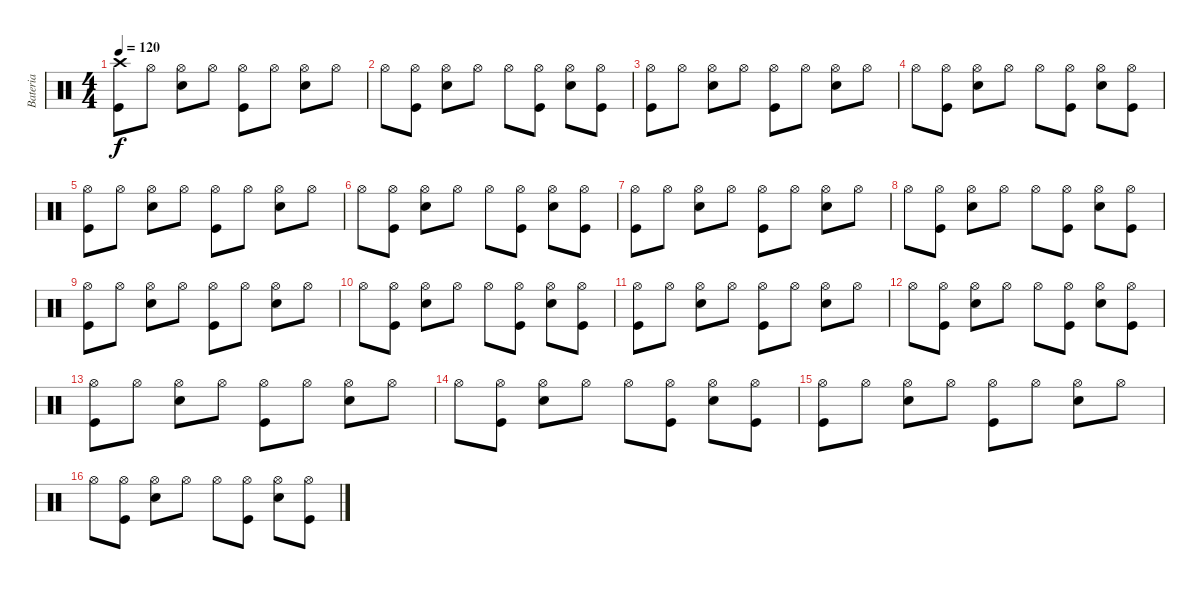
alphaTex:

\track ("Bateria" "Bateria") {instrument percussion}
\staff {score}
\articulation defaults
\ts (4 4)
\tempo 120
\clef neutral
\ks c
("Kick (hit)" "Crash high (hit)").8{dy f} "Hi-Hat (open)".8 ("Electric Snare (hit)" "Hi-Hat (open)").8 "Hi-Hat (open)".8 ("Kick (hit)" "Hi-Hat (open)").8 "Hi-Hat (open)".8 ("Electric Snare (hit)" "Hi-Hat (open)").8 "Hi-Hat (open)".8 |
"Hi-Hat (open)".8 ("Kick (hit)" "Hi-Hat (open)").8 ("Electric Snare (hit)" "Hi-Hat (open)").8 "Hi-Hat (open)".8 "Hi-Hat (open)".8 ("Kick (hit)" "Hi-Hat (open)").8 ("Electric Snare (hit)" "Hi-Hat (open)").8 ("Kick (hit)" "Hi-Hat (open)").8 |
("Kick (hit)" "Hi-Hat (open)").8 "Hi-Hat (open)".8 ("Electric Snare (hit)" "Hi-Hat (open)").8 "Hi-Hat (open)".8 ("Kick (hit)" "Hi-Hat (open)").8 "Hi-Hat (open)".8 ("Electric Snare (hit)" "Hi-Hat (open)").8 "Hi-Hat (open)".8 |
"Hi-Hat (open)".8 ("Kick (hit)" "Hi-Hat (open)").8 ("Electric Snare (hit)" "Hi-Hat (open)").8 "Hi-Hat (open)".8 "Hi-Hat (open)".8 ("Kick (hit)" "Hi-Hat (open)").8 ("Electric Snare (hit)" "Hi-Hat (open)").8 ("Kick (hit)" "Hi-Hat (open)").8 |
("Kick (hit)" "Hi-Hat (open)").8 "Hi-Hat (open)".8 ("Electric Snare (hit)" "Hi-Hat (open)").8 "Hi-Hat (open)".8 ("Kick (hit)" "Hi-Hat (open)").8 "Hi-Hat (open)".8 ("Electric Snare (hit)" "Hi-Hat (open)").8 "Hi-Hat (open)".8 |
"Hi-Hat (open)".8 ("Kick (hit)" "Hi-Hat (open)").8 ("Electric Snare (hit)" "Hi-Hat (open)").8 "Hi-Hat (open)".8 "Hi-Hat (open)".8 ("Kick (hit)" "Hi-Hat (open)").8 ("Electric Snare (hit)" "Hi-Hat (open)").8 ("Kick (hit)" "Hi-Hat (open)").8 |
("Kick (hit)" "Hi-Hat (open)").8 "Hi-Hat (open)".8 ("Electric Snare (hit)" "Hi-Hat (open)").8 "Hi-Hat (open)".8 ("Kick (hit)" "Hi-Hat (open)").8 "Hi-Hat (open)".8 ("Electric Snare (hit)" "Hi-Hat (open)").8 "Hi-Hat (open)".8 |
"Hi-Hat (open)".8 ("Kick (hit)" "Hi-Hat (open)").8 ("Electric Snare (hit)" "Hi-Hat (open)").8 "Hi-Hat (open)".8 "Hi-Hat (open)".8 ("Kick (hit)" "Hi-Hat (open)").8 ("Electric Snare (hit)" "Hi-Hat (open)").8 ("Kick (hit)" "Hi-Hat (open)").8 |
("Kick (hit)" "Hi-Hat (open)").8 "Hi-Hat (open)".8 ("Electric Snare (hit)" "Hi-Hat (open)").8 "Hi-Hat (open)".8 ("Kick (hit)" "Hi-Hat (open)").8 "Hi-Hat (open)".8 ("Electric Snare (hit)" "Hi-Hat (open)").8 "Hi-Hat (open)".8 |
"Hi-Hat (open)".8 ("Kick (hit)" "Hi-Hat (open)").8 ("Electric Snare (hit)" "Hi-Hat (open)").8 "Hi-Hat (open)".8 "Hi-Hat (open)".8 ("Kick (hit)" "Hi-Hat (open)").8 ("Electric Snare (hit)" "Hi-Hat (open)").8 ("Kick (hit)" "Hi-Hat (open)").8 |
("Kick (hit)" "Hi-Hat (open)").8 "Hi-Hat (open)".8 ("Electric Snare (hit)" "Hi-Hat (open)").8 "Hi-Hat (open)".8 ("Kick (hit)" "Hi-Hat (open)").8 "Hi-Hat (open)".8 ("Electric Snare (hit)" "Hi-Hat (open)").8 "Hi-Hat (open)".8 |
"Hi-Hat (open)".8 ("Kick (hit)" "Hi-Hat (open)").8 ("Electric Snare (hit)" "Hi-Hat (open)").8 "Hi-Hat (open)".8 "Hi-Hat (open)".8 ("Kick (hit)" "Hi-Hat (open)").8 ("Electric Snare (hit)" "Hi-Hat (open)").8 ("Kick (hit)" "Hi-Hat (open)").8 |
("Kick (hit)" "Hi-Hat (open)").8 "Hi-Hat (open)".8 ("Electric Snare (hit)" "Hi-Hat (open)").8 "Hi-Hat (open)".8 ("Kick (hit)" "Hi-Hat (open)").8 "Hi-Hat (open)".8 ("Electric Snare (hit)" "Hi-Hat (open)").8 "Hi-Hat (open)".8 |
"Hi-Hat (open)".8 ("Kick (hit)" "Hi-Hat (open)").8 ("Electric Snare (hit)" "Hi-Hat (open)").8 "Hi-Hat (open)".8 "Hi-Hat (open)".8 ("Kick (hit)" "Hi-Hat (open)").8 ("Electric Snare (hit)" "Hi-Hat (open)").8 ("Kick (hit)" "Hi-Hat (open)").8 |
("Kick (hit)" "Hi-Hat (open)").8 "Hi-Hat (open)".8 ("Electric Snare (hit)" "Hi-Hat (open)").8 "Hi-Hat (open)".8 ("Kick (hit)" "Hi-Hat (open)").8 "Hi-Hat (open)".8 ("Electric Snare (hit)" "Hi-Hat (open)").8 "Hi-Hat (open)".8 |
"Hi-Hat (open)".8 ("Kick (hit)" "Hi-Hat (open)").8 ("Electric Snare (hit)" "Hi-Hat (open)").8 "Hi-Hat (open)".8 "Hi-Hat (open)".8 ("Kick (hit)" "Hi-Hat (open)").8 ("Electric Snare (hit)" "Hi-Hat (open)").8 ("Kick (hit)" "Hi-Hat (open)").8
